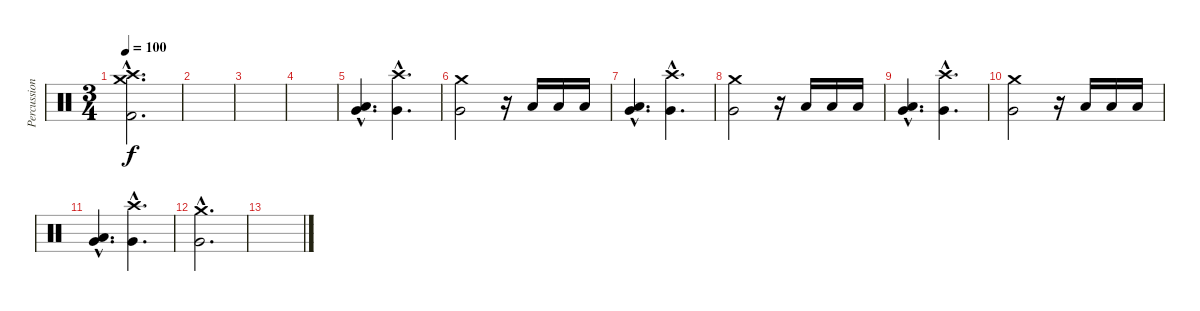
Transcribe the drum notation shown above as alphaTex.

\track ("Percussion" "Percussion") {instrument percussion}
\staff {score}
\articulation defaults
\ts (3 4)
\section ("" "")
\tempo 100
\clef neutral
\ks c
("Kick (hit) 2"{hac} "Crash medium (hit)"{hac} "Crash high (hit)"{hac}).2{d dy f} |
|
|
|
("Low Floor Tom (hit)"{hac} "Very Low Tom (hit)"{hac}).4{d} ("Crash high (hit)"{hac} "Very Low Tom (hit)"{hac}).4{d} |
("Crash medium (hit)" "Very Low Tom (hit)").2 r.16 "Low Floor Tom (hit)".16 "Low Floor Tom (hit)".16 "Low Floor Tom (hit)".16 |
("Low Floor Tom (hit)"{hac} "Very Low Tom (hit)"{hac}).4{d} ("Crash high (hit)"{hac} "Very Low Tom (hit)"{hac}).4{d} |
("Crash medium (hit)" "Very Low Tom (hit)").2 r.16 "Low Floor Tom (hit)".16 "Low Floor Tom (hit)".16 "Low Floor Tom (hit)".16 |
("Low Floor Tom (hit)"{hac} "Very Low Tom (hit)"{hac}).4{d} ("Crash high (hit)"{hac} "Very Low Tom (hit)"{hac}).4{d} |
("Crash medium (hit)" "Very Low Tom (hit)").2 r.16 "Low Floor Tom (hit)".16 "Low Floor Tom (hit)".16 "Low Floor Tom (hit)".16 |
("Low Floor Tom (hit)"{hac} "Very Low Tom (hit)"{hac}).4{d} ("Crash high (hit)"{hac} "Very Low Tom (hit)"{hac}).4{d} |
("Crash medium (hit)"{hac} "Very Low Tom (hit)"{hac}).2{d} |
\section ("" "")
